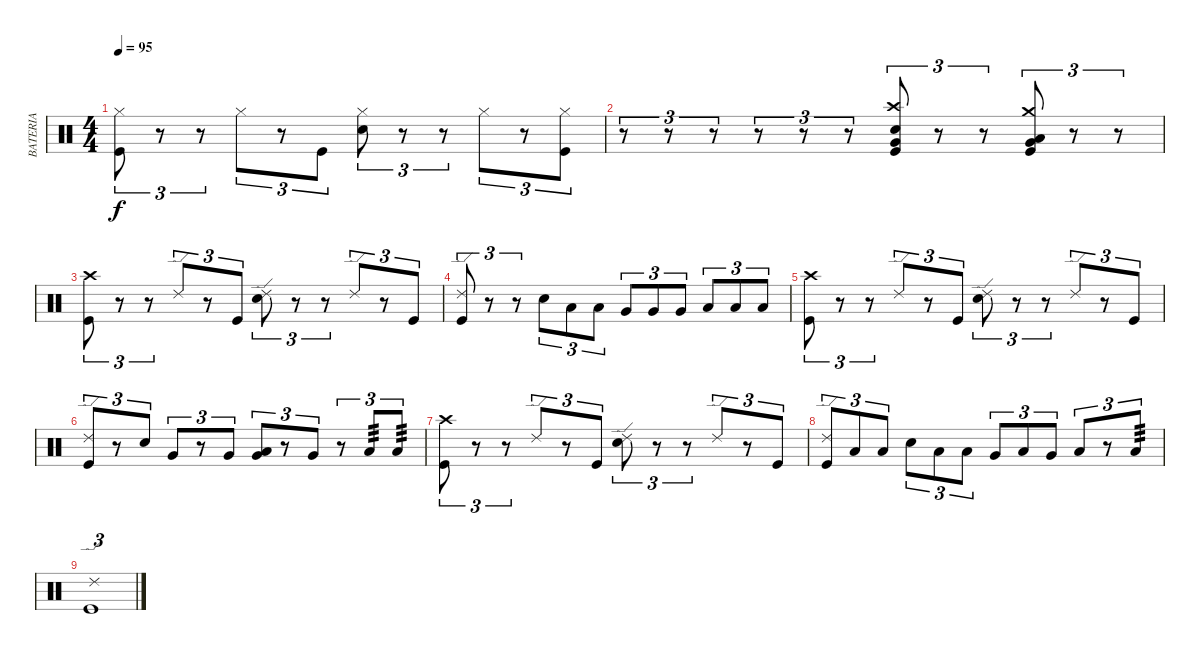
\track ("BATERIA" "BATERIA") {instrument percussion}
\staff {score}
\articulation defaults
\ts (4 4)
\tempo 95
\clef neutral
\ks c
("Hi-Hat (closed)" "Kick (hit)").8{tu (3 2) dy f} r.8{tu (3 2)} r.8{tu (3 2)} "Hi-Hat (closed)".8{tu (3 2)} r.8{tu (3 2)} "Kick (hit)".8{tu (3 2)} ("Hi-Hat (closed)" "Snare (hit) 2").8{tu (3 2)} r.8{tu (3 2)} r.8{tu (3 2)} "Hi-Hat (closed)".8{tu (3 2)} r.8{tu (3 2)} ("Hi-Hat (closed)" "Kick (hit)").8{tu (3 2)} |
r.8{tu (3 2)} r.8{tu (3 2)} r.8{tu (3 2)} r.8{tu (3 2)} r.8{tu (3 2)} r.8{tu (3 2)} ("Crash high (hit)" "Very Low Tom (hit)" "Snare (hit) 2" "Kick (hit)").8{tu (3 2)} r.8{tu (3 2)} r.8{tu (3 2)} ("Crash medium (hit)" "Very Low Tom (hit)" "Low Floor Tom (hit)" "Kick (hit)").8{tu (3 2)} r.8{tu (3 2)} r.8{tu (3 2)} |
("Crash high (hit)" "Kick (hit)").8{tu (3 2)} r.8{tu (3 2)} r.8{tu (3 2)} "Ride (edge) 2".8{tu (3 2)} r.8{tu (3 2)} "Kick (hit)".8{tu (3 2)} ("Ride (edge) 2" "Snare (hit) 2").8{tu (3 2)} r.8{tu (3 2)} r.8{tu (3 2)} "Ride (edge) 2".8{tu (3 2)} r.8{tu (3 2)} "Kick (hit)".8{tu (3 2)} |
("Ride (edge) 2" "Kick (hit)").8{tu (3 2)} r.8{tu (3 2)} r.8{tu (3 2)} "Snare (hit) 2".8{tu (3 2)} "Low Tom (hit)".8{tu (3 2)} "Low Tom (hit)".8{tu (3 2)} "Very Low Tom (hit)".8{tu (3 2)} "Very Low Tom (hit)".8{tu (3 2)} "Very Low Tom (hit)".8{tu (3 2)} "Low Floor Tom (hit)".8{tu (3 2)} "Low Floor Tom (hit)".8{tu (3 2)} "Low Floor Tom (hit)".8{tu (3 2)} |
("Crash high (hit)" "Kick (hit)").8{tu (3 2)} r.8{tu (3 2)} r.8{tu (3 2)} "Ride (edge) 2".8{tu (3 2)} r.8{tu (3 2)} "Kick (hit)".8{tu (3 2)} ("Ride (edge) 2" "Snare (hit) 2").8{tu (3 2)} r.8{tu (3 2)} r.8{tu (3 2)} "Ride (edge) 2".8{tu (3 2)} r.8{tu (3 2)} "Kick (hit)".8{tu (3 2)} |
("Ride (edge) 2" "Kick (hit)").8{tu (3 2)} r.8{tu (3 2)} "Snare (hit) 2".8{tu (3 2)} "Very Low Tom (hit)".8{tu (3 2)} r.8{tu (3 2)} "Very Low Tom (hit)".8{tu (3 2)} ("Very Low Tom (hit)" "Low Floor Tom (hit)").8{tu (3 2)} r.8{tu (3 2)} "Very Low Tom (hit)".8{tu (3 2)} r.8{tu (3 2)} "Low Floor Tom (hit)".8{tu (3 2) tp 3} "Low Floor Tom (hit)".8{tu (3 2) tp 3} |
("Crash high (hit)" "Kick (hit)").8{tu (3 2)} r.8{tu (3 2)} r.8{tu (3 2)} "Ride (edge) 2".8{tu (3 2)} r.8{tu (3 2)} "Kick (hit)".8{tu (3 2)} ("Ride (edge) 2" "Snare (hit) 2").8{tu (3 2)} r.8{tu (3 2)} r.8{tu (3 2)} "Ride (edge) 2".8{tu (3 2)} r.8{tu (3 2)} "Kick (hit)".8{tu (3 2)} |
("Ride (edge) 2" "Kick (hit)").8{tu (3 2)} "Low Tom (hit)".8{tu (3 2)} "Low Tom (hit)".8{tu (3 2)} "Snare (hit) 2".8{tu (3 2)} "Low Tom (hit)".8{tu (3 2)} "Low Tom (hit)".8{tu (3 2)} "Very Low Tom (hit)".8{tu (3 2)} "Low Tom (hit)".8{tu (3 2)} "Very Low Tom (hit)".8{tu (3 2)} "Low Floor Tom (hit)".8{tu (3 2)} r.8{tu (3 2)} "Low Floor Tom (hit)".8{tu (3 2) tp 3} |
("Kick (hit)" "Ride (edge) 2").1{tu (3 2)}
